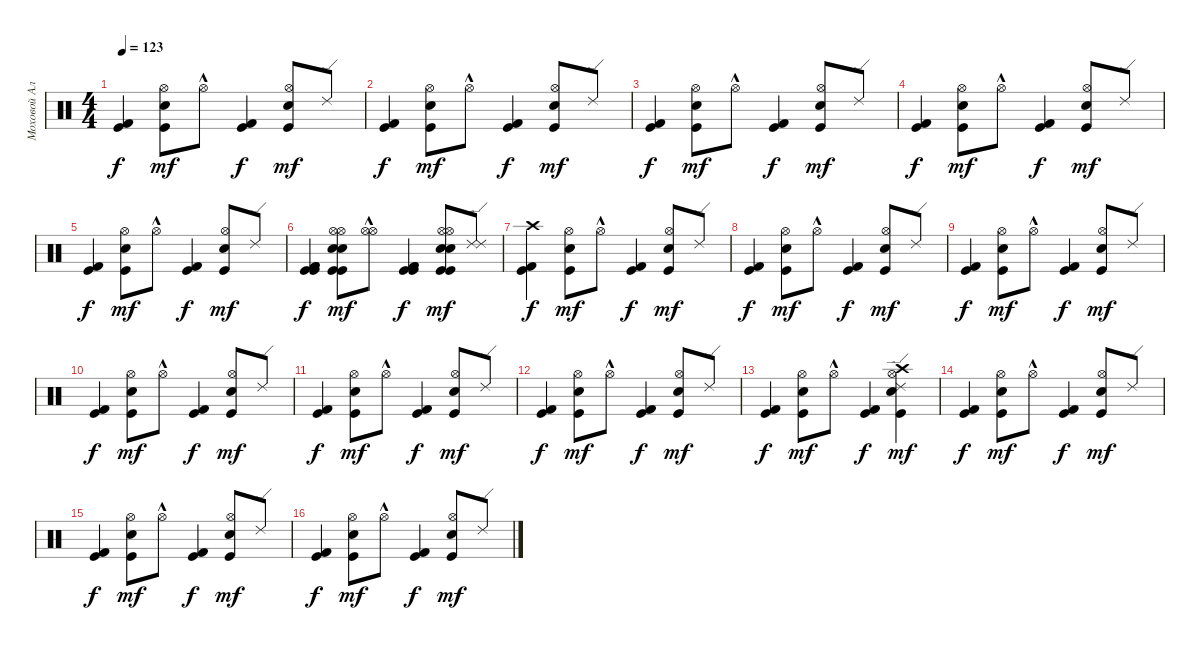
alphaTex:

\track ("Moxoвой Алексей" "Moxoвой Ал") {instrument percussion}
\staff {score}
\articulation defaults
\ts (4 4)
\tempo 123
\clef neutral
\ks c
("Kick (hit)" "Kick (hit) 2").4{dy f} ("Hi-Hat (open)" "Hand Clap (hit)" "Kick (hit)").8{dy mf} "Hi-Hat (open)"{hac}.8 ("Kick (hit) 2" "Kick (hit)").4{dy f} ("Kick (hit)" "Hi-Hat (open)" "Hand Clap (hit)").8{dy mf} "Ride (edge) 2".8 |
("Kick (hit) 2" "Kick (hit)").4{dy f} ("Kick (hit)" "Hi-Hat (open)" "Hand Clap (hit)").8{dy mf} "Hi-Hat (open)"{hac}.8 ("Kick (hit) 2" "Kick (hit)").4{dy f} ("Hi-Hat (open)" "Hand Clap (hit)" "Kick (hit)").8{dy mf} "Ride (edge) 2".8 |
("Kick (hit) 2" "Kick (hit)").4{dy f} ("Kick (hit)" "Hand Clap (hit)" "Hi-Hat (open)").8{dy mf} "Hi-Hat (open)"{hac}.8 ("Kick (hit) 2" "Kick (hit)").4{dy f} ("Hand Clap (hit)" "Kick (hit)" "Hi-Hat (open)").8{dy mf} "Ride (edge) 2".8 |
("Kick (hit)" "Kick (hit) 2").4{dy f} ("Kick (hit)" "Hand Clap (hit)" "Hi-Hat (open)").8{dy mf} "Hi-Hat (open)"{hac}.8 ("Kick (hit) 2" "Kick (hit)").4{dy f} ("Kick (hit)" "Hand Clap (hit)" "Hi-Hat (open)").8{dy mf} "Ride (edge) 2".8 |
("Kick (hit) 2" "Kick (hit)").4{dy f} ("Kick (hit)" "Hand Clap (hit)" "Hi-Hat (open)").8{dy mf} "Hi-Hat (open)"{hac}.8 ("Kick (hit) 2" "Kick (hit)").4{dy f} ("Kick (hit)" "Hand Clap (hit)" "Hi-Hat (open)").8{dy mf} "Ride (edge) 2".8 |
("Kick (hit)" "Kick (hit) 2" "Kick (hit) 2" "Kick (hit)").4{dy f} ("Kick (hit)" "Hi-Hat (open)" "Hand Clap (hit)" "Hi-Hat (open)" "Hand Clap (hit)" "Kick (hit)").8{dy mf} ("Hi-Hat (open)"{hac} "Hi-Hat (open)"{hac}).8 ("Kick (hit) 2" "Kick (hit)" "Kick (hit) 2" "Kick (hit)").4{dy f} ("Hand Clap (hit)" "Hand Clap (hit)" "Hi-Hat (open)" "Kick (hit)" "Hi-Hat (open)" "Kick (hit)").8{dy mf} ("Ride (edge) 2" "Ride (edge) 2").8 |
("Kick (hit)" "Crash high (hit)" "Kick (hit) 2").4{dy f} ("Hi-Hat (open)" "Kick (hit)" "Hand Clap (hit)").8{dy mf} "Hi-Hat (open)"{hac}.8 ("Kick (hit)" "Kick (hit) 2").4{dy f} ("Kick (hit)" "Hand Clap (hit)" "Hi-Hat (open)").8{dy mf} "Ride (edge) 2".8 |
("Kick (hit)" "Kick (hit) 2").4{dy f} ("Hand Clap (hit)" "Hi-Hat (open)" "Kick (hit)").8{dy mf} "Hi-Hat (open)"{hac}.8 ("Kick (hit)" "Kick (hit) 2").4{dy f} ("Kick (hit)" "Hi-Hat (open)" "Hand Clap (hit)").8{dy mf} "Ride (edge) 2".8 |
("Kick (hit)" "Kick (hit) 2").4{dy f} ("Hi-Hat (open)" "Kick (hit)" "Hand Clap (hit)").8{dy mf} "Hi-Hat (open)"{hac}.8 ("Kick (hit) 2" "Kick (hit)").4{dy f} ("Kick (hit)" "Hand Clap (hit)" "Hi-Hat (open)").8{dy mf} "Ride (edge) 2".8 |
("Kick (hit) 2" "Kick (hit)").4{dy f} ("Hand Clap (hit)" "Kick (hit)" "Hi-Hat (open)").8{dy mf} "Hi-Hat (open)"{hac}.8 ("Kick (hit)" "Kick (hit) 2").4{dy f} ("Hand Clap (hit)" "Hi-Hat (open)" "Kick (hit)").8{dy mf} "Ride (edge) 2".8 |
("Kick (hit)" "Kick (hit) 2").4{dy f} ("Kick (hit)" "Hi-Hat (open)" "Hand Clap (hit)").8{dy mf} "Hi-Hat (open)"{hac}.8 ("Kick (hit)" "Kick (hit) 2").4{dy f} ("Hi-Hat (open)" "Hand Clap (hit)" "Kick (hit)").8{dy mf} "Ride (edge) 2".8 |
("Kick (hit)" "Kick (hit) 2").4{dy f} ("Hi-Hat (open)" "Kick (hit)" "Hand Clap (hit)").8{dy mf} "Hi-Hat (open)"{hac}.8 ("Kick (hit) 2" "Kick (hit)").4{dy f} ("Hand Clap (hit)" "Hi-Hat (open)" "Kick (hit)").8{dy mf} "Ride (edge) 2".8 |
("Kick (hit) 2" "Kick (hit)").4{dy f} ("Kick (hit)" "Hand Clap (hit)" "Hi-Hat (open)").8{dy mf} "Hi-Hat (open)"{hac}.8 ("Kick (hit) 2" "Kick (hit)").4{dy f} ("Hand Clap (hit)" "Kick (hit)" "Crash high (hit)" "Hi-Hat (open)" "Ride (edge) 2").4{dy mf} |
("Kick (hit)" "Kick (hit) 2").4{dy f} ("Kick (hit)" "Hand Clap (hit)" "Hi-Hat (open)").8{dy mf} "Hi-Hat (open)"{hac}.8 ("Kick (hit) 2" "Kick (hit)").4{dy f} ("Kick (hit)" "Hand Clap (hit)" "Hi-Hat (open)").8{dy mf} "Ride (edge) 2".8 |
("Kick (hit) 2" "Kick (hit)").4{dy f} ("Hi-Hat (open)" "Kick (hit)" "Hand Clap (hit)").8{dy mf} "Hi-Hat (open)"{hac}.8 ("Kick (hit)" "Kick (hit) 2").4{dy f} ("Hand Clap (hit)" "Kick (hit)" "Hi-Hat (open)").8{dy mf} "Ride (edge) 2".8 |
("Kick (hit)" "Kick (hit) 2").4{dy f} ("Hi-Hat (open)" "Hand Clap (hit)" "Kick (hit)").8{dy mf} "Hi-Hat (open)"{hac}.8 ("Kick (hit)" "Kick (hit) 2").4{dy f} ("Hi-Hat (open)" "Hand Clap (hit)" "Kick (hit)").8{dy mf} "Ride (edge) 2".8
